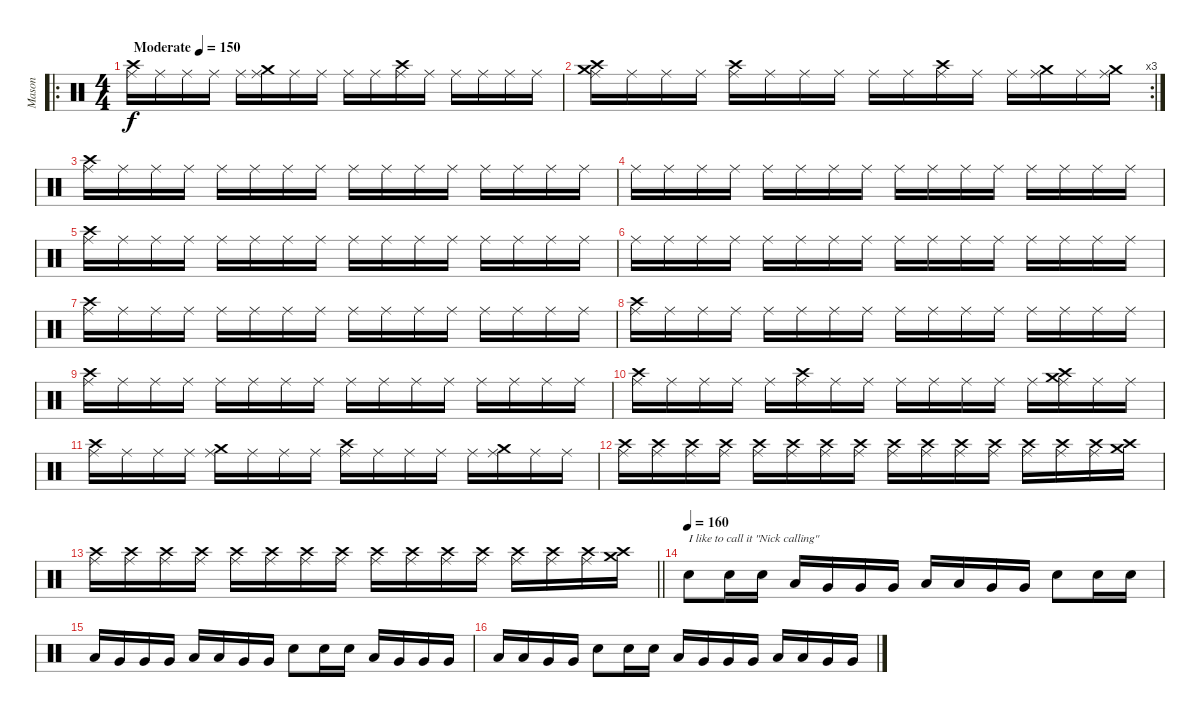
\track ("Mason" "Mason") {instrument percussion}
\staff {score}
\articulation defaults
\ro
\ts (4 4)
\section ("" "")
\tempo (150 "Moderate")
\clef neutral
\ks c
("Ride (middle)" "Crash high (hit)").16{dy f} "Ride (middle)".16 "Ride (middle)".16 "Ride (middle)".16 "Ride (middle)".16 ("Ride (middle)" "Crash medium (hit)").16 "Ride (middle)".16 "Ride (middle)".16 "Ride (middle)".16 "Ride (middle)".16 ("Ride (middle)" "Crash high (hit)").16 "Ride (middle)".16 "Ride (middle)".16 "Ride (middle)".16 "Ride (middle)".16 "Ride (middle)".16 |
\rc 3
("Ride (middle)" "Crash high (hit)" "Crash medium (hit)").16 "Ride (middle)".16 "Ride (middle)".16 "Ride (middle)".16 ("Ride (middle)" "Crash high (hit)").16 "Ride (middle)".16 "Ride (middle)".16 "Ride (middle)".16 "Ride (middle)".16 "Ride (middle)".16 ("Ride (middle)" "Crash high (hit)").16 "Ride (middle)".16 "Ride (middle)".16 ("Ride (middle)" "Crash medium (hit)").16 "Ride (middle)".16 ("Ride (middle)" "Crash medium (hit)").16 |
("Ride (middle)" "Crash high (hit)").16 "Ride (middle)".16 "Ride (middle)".16 "Ride (middle)".16 "Ride (middle)".16 "Ride (middle)".16 "Ride (middle)".16 "Ride (middle)".16 "Ride (middle)".16 "Ride (middle)".16 "Ride (middle)".16 "Ride (middle)".16 "Ride (middle)".16 "Ride (middle)".16 "Ride (middle)".16 "Ride (middle)".16 |
"Ride (middle)".16 "Ride (middle)".16 "Ride (middle)".16 "Ride (middle)".16 "Ride (middle)".16 "Ride (middle)".16 "Ride (middle)".16 "Ride (middle)".16 "Ride (middle)".16 "Ride (middle)".16 "Ride (middle)".16 "Ride (middle)".16 "Ride (middle)".16 "Ride (middle)".16 "Ride (middle)".16 "Ride (middle)".16 |
("Ride (middle)" "Crash high (hit)").16 "Ride (middle)".16 "Ride (middle)".16 "Ride (middle)".16 "Ride (middle)".16 "Ride (middle)".16 "Ride (middle)".16 "Ride (middle)".16 "Ride (middle)".16 "Ride (middle)".16 "Ride (middle)".16 "Ride (middle)".16 "Ride (middle)".16 "Ride (middle)".16 "Ride (middle)".16 "Ride (middle)".16 |
"Ride (middle)".16 "Ride (middle)".16 "Ride (middle)".16 "Ride (middle)".16 "Ride (middle)".16 "Ride (middle)".16 "Ride (middle)".16 "Ride (middle)".16 "Ride (middle)".16 "Ride (middle)".16 "Ride (middle)".16 "Ride (middle)".16 "Ride (middle)".16 "Ride (middle)".16 "Ride (middle)".16 "Ride (middle)".16 |
("Ride (middle)" "Crash high (hit)").16 "Ride (middle)".16 "Ride (middle)".16 "Ride (middle)".16 "Ride (middle)".16 "Ride (middle)".16 "Ride (middle)".16 "Ride (middle)".16 "Ride (middle)".16 "Ride (middle)".16 "Ride (middle)".16 "Ride (middle)".16 "Ride (middle)".16 "Ride (middle)".16 "Ride (middle)".16 "Ride (middle)".16 |
("Ride (middle)" "Crash high (hit)").16 "Ride (middle)".16 "Ride (middle)".16 "Ride (middle)".16 "Ride (middle)".16 "Ride (middle)".16 "Ride (middle)".16 "Ride (middle)".16 "Ride (middle)".16 "Ride (middle)".16 "Ride (middle)".16 "Ride (middle)".16 "Ride (middle)".16 "Ride (middle)".16 "Ride (middle)".16 "Ride (middle)".16 |
("Ride (middle)" "Crash high (hit)").16 "Ride (middle)".16 "Ride (middle)".16 "Ride (middle)".16 "Ride (middle)".16 "Ride (middle)".16 "Ride (middle)".16 "Ride (middle)".16 "Ride (middle)".16 "Ride (middle)".16 "Ride (middle)".16 "Ride (middle)".16 "Ride (middle)".16 "Ride (middle)".16 "Ride (middle)".16 "Ride (middle)".16 |
("Ride (middle)" "Crash high (hit)").16 "Ride (middle)".16 "Ride (middle)".16 "Ride (middle)".16 "Ride (middle)".16 ("Ride (middle)" "Crash high (hit)").16 "Ride (middle)".16 "Ride (middle)".16 "Ride (middle)".16 "Ride (middle)".16 "Ride (middle)".16 "Ride (middle)".16 "Ride (middle)".16 ("Ride (middle)" "Crash medium (hit)" "Crash high (hit)").16 "Ride (middle)".16 "Ride (middle)".16 |
("Ride (middle)" "Crash high (hit)").16 "Ride (middle)".16 "Ride (middle)".16 "Ride (middle)".16 ("Ride (middle)" "Crash medium (hit)").16 "Ride (middle)".16 "Ride (middle)".16 "Ride (middle)".16 ("Ride (middle)" "Crash high (hit)").16 "Ride (middle)".16 "Ride (middle)".16 "Ride (middle)".16 "Ride (middle)".16 ("Ride (middle)" "Crash medium (hit)").16 "Ride (middle)".16 "Ride (middle)".16 |
("Ride (middle)" "Crash high (hit)").16 ("Ride (middle)" "Crash high (hit)").16 ("Ride (middle)" "Crash high (hit)").16 ("Ride (middle)" "Crash high (hit)").16 ("Ride (middle)" "Crash high (hit)").16 ("Ride (middle)" "Crash high (hit)").16 ("Ride (middle)" "Crash high (hit)").16 ("Ride (middle)" "Crash high (hit)").16 ("Ride (middle)" "Crash high (hit)").16 ("Ride (middle)" "Crash high (hit)").16 ("Ride (middle)" "Crash high (hit)").16 ("Ride (middle)" "Crash high (hit)").16 ("Ride (middle)" "Crash high (hit)").16 ("Ride (middle)" "Crash high (hit)").16 ("Ride (middle)" "Crash high (hit)").16 ("Crash high (hit)" "Crash medium (hit)").16 |
\barLineRight lightlight
("Ride (middle)" "Crash high (hit)").16 ("Ride (middle)" "Crash high (hit)").16 ("Ride (middle)" "Crash high (hit)").16 ("Ride (middle)" "Crash high (hit)").16 ("Ride (middle)" "Crash high (hit)").16 ("Ride (middle)" "Crash high (hit)").16 ("Ride (middle)" "Crash high (hit)").16 ("Ride (middle)" "Crash high (hit)").16 ("Ride (middle)" "Crash high (hit)").16 ("Ride (middle)" "Crash high (hit)").16 ("Ride (middle)" "Crash high (hit)").16 ("Ride (middle)" "Crash high (hit)").16 ("Ride (middle)" "Crash high (hit)").16 ("Ride (middle)" "Crash high (hit)").16 ("Ride (middle)" "Crash high (hit)").16 ("Crash high (hit)" "Crash medium (hit)").16 |
\section ("" "")
\tempo (160)
"Electric Snare (hit)".8{txt "I like to call it \"Nick calling\" "} "Electric Snare (hit)".16 "Electric Snare (hit)".16 "Low Tom (hit)".16 "Very Low Tom (hit)".16 "Very Low Tom (hit)".16 "Very Low Tom (hit)".16 "Low Floor Tom (hit)".16 "Low Floor Tom (hit)".16 "Very Low Tom (hit)".16 "Very Low Tom (hit)".16 "Electric Snare (hit)".8 "Electric Snare (hit)".16 "Electric Snare (hit)".16 |
"Low Tom (hit)".16 "Very Low Tom (hit)".16 "Very Low Tom (hit)".16 "Very Low Tom (hit)".16 "Low Floor Tom (hit)".16 "Low Floor Tom (hit)".16 "Very Low Tom (hit)".16 "Very Low Tom (hit)".16 "Electric Snare (hit)".8 "Electric Snare (hit)".16 "Electric Snare (hit)".16 "Low Tom (hit)".16 "Very Low Tom (hit)".16 "Very Low Tom (hit)".16 "Very Low Tom (hit)".16 |
"Low Floor Tom (hit)".16 "Low Floor Tom (hit)".16 "Very Low Tom (hit)".16 "Very Low Tom (hit)".16 "Electric Snare (hit)".8 "Electric Snare (hit)".16 "Electric Snare (hit)".16 "Low Tom (hit)".16 "Very Low Tom (hit)".16 "Very Low Tom (hit)".16 "Very Low Tom (hit)".16 "Low Floor Tom (hit)".16 "Low Floor Tom (hit)".16 "Very Low Tom (hit)".16 "Very Low Tom (hit)".16
